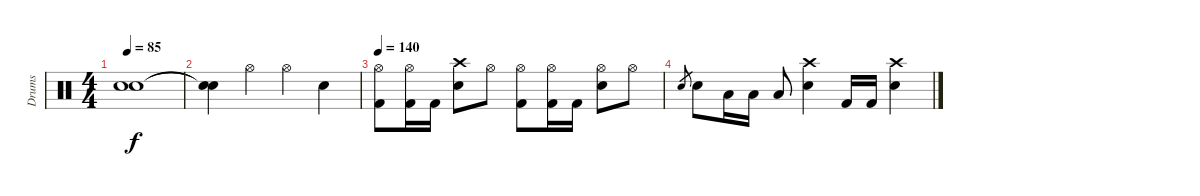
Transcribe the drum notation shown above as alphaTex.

\track ("Drums" "Drums") {instrument percussion}
\staff {score}
\articulation defaults
\ts (4 4)
\tempo 85
\clef neutral
\ks c
("Snare (hit)"{t} "Snare (hit)"{t}).1{dy f} |
("Snare (hit)"{t} "Snare (hit)"{t}).4 "Hi-Hat (open)".4 "Hi-Hat (open)".4 "Electric Snare (hit)".4 |
\tempo 140
("Hi-Hat (open)" "Kick (hit) 2").8 ("Hi-Hat (open)" "Kick (hit) 2").16 "Kick (hit) 2".16 ("Crash high (hit)" "Electric Snare (hit)").8 "Hi-Hat (open)".8 ("Hi-Hat (open)" "Kick (hit) 2").8 ("Hi-Hat (open)" "Kick (hit) 2").16 "Kick (hit) 2".16 ("Hi-Hat (open)" "Electric Snare (hit)").8 "Hi-Hat (open)".8 |
"Electric Snare (hit)".8{gr} "Electric Snare (hit)".8 "Low Tom (hit)".16 "Low Tom (hit)".16 "Low Tom (hit)".8 ("Crash high (hit)" "Electric Snare (hit)").4 "Kick (hit) 2".16 "Kick (hit) 2".16 ("Crash high (hit)" "Electric Snare (hit)").4
